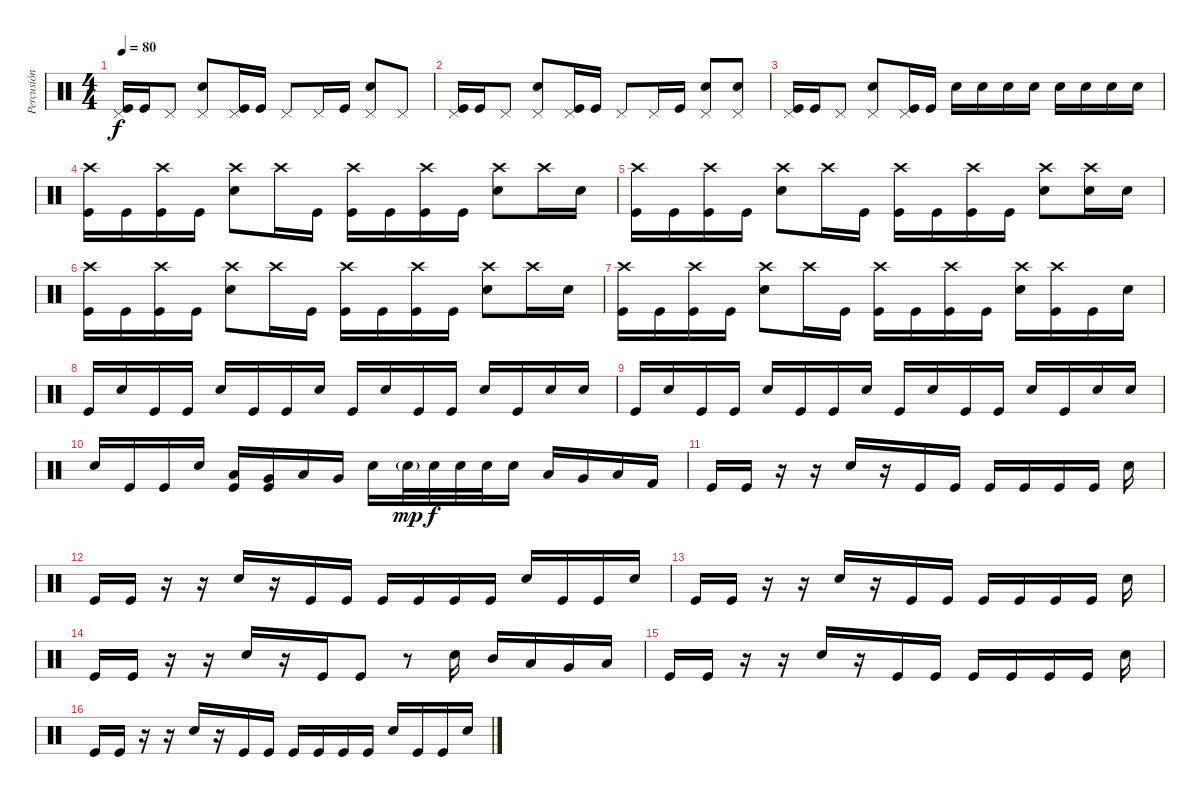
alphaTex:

\track ("Percusión" "Percusión") {instrument percussion}
\staff {score}
\articulation defaults
\ts (4 4)
\tempo 80
\clef neutral
\ks c
("Pedal Hi-Hat (hit)" "Kick (hit)").16{dy f} "Kick (hit)".16 "Pedal Hi-Hat (hit)".8 ("Pedal Hi-Hat (hit)" "Snare (hit) 2").8 ("Pedal Hi-Hat (hit)" "Kick (hit)").16 "Kick (hit)".16 "Pedal Hi-Hat (hit)".8 "Pedal Hi-Hat (hit)".16 "Kick (hit)".16 ("Pedal Hi-Hat (hit)" "Snare (hit) 2").8 "Pedal Hi-Hat (hit)".8 |
("Pedal Hi-Hat (hit)" "Kick (hit)").16 "Kick (hit)".16 "Pedal Hi-Hat (hit)".8 ("Pedal Hi-Hat (hit)" "Snare (hit) 2").8 ("Pedal Hi-Hat (hit)" "Kick (hit)").16 "Kick (hit)".16 "Pedal Hi-Hat (hit)".8 "Pedal Hi-Hat (hit)".16 "Kick (hit)".16 ("Pedal Hi-Hat (hit)" "Snare (hit) 2").8 ("Pedal Hi-Hat (hit)" "Snare (hit) 2").8 |
("Pedal Hi-Hat (hit)" "Kick (hit)").16 "Kick (hit)".16 "Pedal Hi-Hat (hit)".8 ("Pedal Hi-Hat (hit)" "Snare (hit) 2").8 ("Pedal Hi-Hat (hit)" "Kick (hit)").16 "Kick (hit)".16 "Snare (hit) 2".16 "Snare (hit) 2".16 "Snare (hit) 2".16 "Snare (hit) 2".16 "Snare (hit) 2".16 "Snare (hit) 2".16 "Snare (hit) 2".16 "Snare (hit) 2".16 |
("Crash high (hit)" "Kick (hit)").16 "Kick (hit)".16 ("Crash high (hit)" "Kick (hit)").16 "Kick (hit)".16 ("Crash high (hit)" "Snare (hit) 2").8 "Crash high (hit)".16 "Kick (hit)".16 ("Crash high (hit)" "Kick (hit)").16 "Kick (hit)".16 ("Crash high (hit)" "Kick (hit)").16 "Kick (hit)".16 ("Crash high (hit)" "Snare (hit) 2").8 "Crash high (hit)".16 "Snare (hit) 2".16 |
("Crash high (hit)" "Kick (hit)").16 "Kick (hit)".16 ("Crash high (hit)" "Kick (hit)").16 "Kick (hit)".16 ("Crash high (hit)" "Snare (hit) 2").8 "Crash high (hit)".16 "Kick (hit)".16 ("Crash high (hit)" "Kick (hit)").16 "Kick (hit)".16 ("Crash high (hit)" "Kick (hit)").16 "Kick (hit)".16 ("Crash high (hit)" "Snare (hit) 2").8 ("Crash high (hit)" "Snare (hit) 2").16 "Snare (hit) 2".16 |
("Crash high (hit)" "Kick (hit)").16 "Kick (hit)".16 ("Crash high (hit)" "Kick (hit)").16 "Kick (hit)".16 ("Crash high (hit)" "Snare (hit) 2").8 "Crash high (hit)".16 "Kick (hit)".16 ("Crash high (hit)" "Kick (hit)").16 "Kick (hit)".16 ("Crash high (hit)" "Kick (hit)").16 "Kick (hit)".16 ("Crash high (hit)" "Snare (hit) 2").8 "Crash high (hit)".16 "Snare (hit) 2".16 |
("Crash high (hit)" "Kick (hit)").16 "Kick (hit)".16 ("Crash high (hit)" "Kick (hit)").16 "Kick (hit)".16 ("Crash high (hit)" "Snare (hit) 2").8 "Crash high (hit)".16 "Kick (hit)".16 ("Crash high (hit)" "Kick (hit)").16 "Kick (hit)".16 ("Crash high (hit)" "Kick (hit)").16 "Kick (hit)".16 ("Crash high (hit)" "Snare (hit) 2").16 ("Crash high (hit)" "Kick (hit)").16 "Kick (hit)".16 "Snare (hit) 2".16 |
"Kick (hit)".16 "Snare (hit) 2".16 "Kick (hit)".16 "Kick (hit)".16 "Snare (hit) 2".16 "Kick (hit)".16 "Kick (hit)".16 "Snare (hit) 2".16 "Kick (hit)".16 "Snare (hit) 2".16 "Kick (hit)".16 "Kick (hit)".16 "Snare (hit) 2".16 "Kick (hit)".16 "Snare (hit) 2".16 "Snare (hit) 2".16 |
"Kick (hit)".16 "Snare (hit) 2".16 "Kick (hit)".16 "Kick (hit)".16 "Snare (hit) 2".16 "Kick (hit)".16 "Kick (hit)".16 "Snare (hit) 2".16 "Kick (hit)".16 "Snare (hit) 2".16 "Kick (hit)".16 "Kick (hit)".16 "Snare (hit) 2".16 "Kick (hit)".16 "Snare (hit) 2".16 "Snare (hit) 2".16 |
"Snare (hit) 2".16 "Kick (hit)".16 "Kick (hit)".16 "Snare (hit) 2".16 ("Kick (hit)" "Low Tom (hit)").16 ("Kick (hit)" "Very Low Tom (hit)").16 "Low Floor Tom (hit)".16 "Very Low Tom (hit)".16 "Snare (hit) 2".16 "Snare (hit) 2"{g}.32{dy mp} "Snare (hit) 2".32{dy f} "Snare (hit) 2".32 "Snare (hit) 2".32 "Snare (hit) 2".16 "Low Tom (hit)".16 "Very Low Tom (hit)".16 "Low Floor Tom (hit)".16 "Kick (hit) 2".16 |
"Kick (hit)".16 "Kick (hit)".16 r.16 r.16 "Snare (hit) 2".16 r.16 "Kick (hit)".16 "Kick (hit)".16 "Kick (hit)".16 "Kick (hit)".16 "Kick (hit)".16 "Kick (hit)".16 "Snare (hit) 2".16 |
"Kick (hit)".16 "Kick (hit)".16 r.16 r.16 "Snare (hit) 2".16 r.16 "Kick (hit)".16 "Kick (hit)".16 "Kick (hit)".16 "Kick (hit)".16 "Kick (hit)".16 "Kick (hit)".16 "Snare (hit) 2".16 "Kick (hit)".16 "Kick (hit)".16 "Snare (hit) 2".16 |
"Kick (hit)".16 "Kick (hit)".16 r.16 r.16 "Snare (hit) 2".16 r.16 "Kick (hit)".16 "Kick (hit)".16 "Kick (hit)".16 "Kick (hit)".16 "Kick (hit)".16 "Kick (hit)".16 "Snare (hit) 2".16 |
"Kick (hit)".16 "Kick (hit)".16 r.16 r.16 "Snare (hit) 2".16 r.16 "Kick (hit)".16 "Kick (hit)".8 r.8 "Snare (hit) 2".16 "Mid Tom (hit)".16 "Low Tom (hit)".16 "Very Low Tom (hit)".16 "Low Floor Tom (hit)".16 |
"Kick (hit)".16 "Kick (hit)".16 r.16 r.16 "Snare (hit) 2".16 r.16 "Kick (hit)".16 "Kick (hit)".16 "Kick (hit)".16 "Kick (hit)".16 "Kick (hit)".16 "Kick (hit)".16 "Snare (hit) 2".16 |
"Kick (hit)".16 "Kick (hit)".16 r.16 r.16 "Snare (hit) 2".16 r.16 "Kick (hit)".16 "Kick (hit)".16 "Kick (hit)".16 "Kick (hit)".16 "Kick (hit)".16 "Kick (hit)".16 "Snare (hit) 2".16 "Kick (hit)".16 "Kick (hit)".16 "Snare (hit) 2".16
